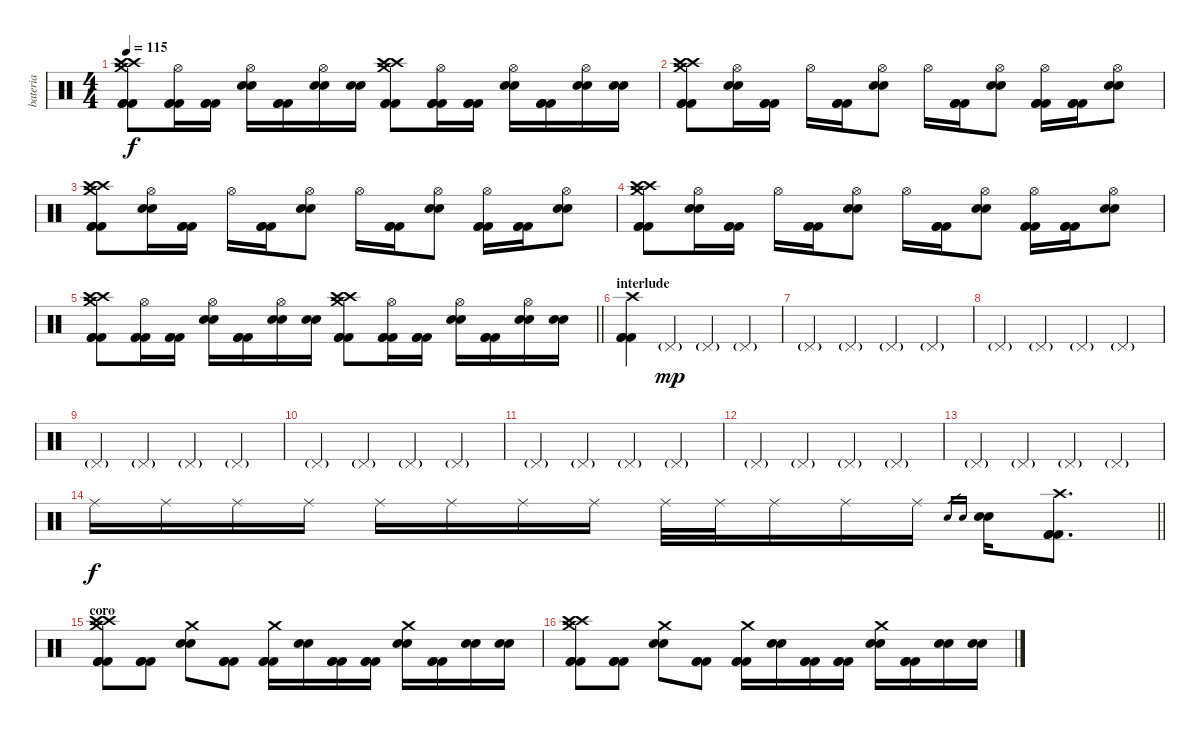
\track ("bateria" "bateria") {instrument percussion}
\staff {score}
\articulation defaults
\ts (4 4)
\tempo 115
\clef neutral
\ks c
("Crash high (hit)" "Crash medium (hit)" "Crash high (hit)" "Kick (hit) 2" "Kick (hit) 2" "Kick (hit) 2").8{dy f} ("Hi-Hat (open)" "Kick (hit) 2" "Kick (hit) 2" "Kick (hit) 2").16 ("Kick (hit) 2" "Kick (hit) 2" "Kick (hit) 2").16 ("Hi-Hat (open)" "Electric Snare (hit)" "Electric Snare (hit)").16 ("Kick (hit) 2" "Kick (hit) 2" "Kick (hit) 2").16 ("Hi-Hat (open)" "Electric Snare (hit)" "Electric Snare (hit)").16 ("Electric Snare (hit)" "Electric Snare (hit)").16 ("Crash high (hit)" "Crash medium (hit)" "Crash high (hit)" "Kick (hit) 2" "Kick (hit) 2" "Kick (hit) 2").8 ("Hi-Hat (open)" "Kick (hit) 2" "Kick (hit) 2" "Kick (hit) 2").16 ("Kick (hit) 2" "Kick (hit) 2" "Kick (hit) 2").16 ("Hi-Hat (open)" "Electric Snare (hit)" "Electric Snare (hit)").16 ("Kick (hit) 2" "Kick (hit) 2" "Kick (hit) 2").16 ("Hi-Hat (open)" "Electric Snare (hit)" "Electric Snare (hit)").16 ("Electric Snare (hit)" "Electric Snare (hit)").16 |
("Crash high (hit)" "Crash medium (hit)" "Crash high (hit)" "Kick (hit) 2" "Kick (hit) 2" "Kick (hit) 2").8 ("Hi-Hat (open)" "Electric Snare (hit)" "Electric Snare (hit)").16 ("Kick (hit) 2" "Kick (hit) 2" "Kick (hit) 2").16 "Hi-Hat (open)".16 ("Kick (hit) 2" "Kick (hit) 2" "Kick (hit) 2").16 ("Hi-Hat (open)" "Electric Snare (hit)" "Electric Snare (hit)").8 "Hi-Hat (open)".16 ("Kick (hit) 2" "Kick (hit) 2" "Kick (hit) 2").16 ("Hi-Hat (open)" "Electric Snare (hit)" "Electric Snare (hit)").8 ("Hi-Hat (open)" "Kick (hit) 2" "Kick (hit) 2" "Kick (hit) 2").16 ("Kick (hit) 2" "Kick (hit) 2" "Kick (hit) 2").16 ("Hi-Hat (open)" "Electric Snare (hit)" "Electric Snare (hit)").8 |
("Crash high (hit)" "Crash medium (hit)" "Crash high (hit)" "Kick (hit) 2" "Kick (hit) 2" "Kick (hit) 2").8 ("Hi-Hat (open)" "Electric Snare (hit)" "Electric Snare (hit)").16 ("Kick (hit) 2" "Kick (hit) 2" "Kick (hit) 2").16 "Hi-Hat (open)".16 ("Kick (hit) 2" "Kick (hit) 2" "Kick (hit) 2").16 ("Hi-Hat (open)" "Electric Snare (hit)" "Electric Snare (hit)").8 "Hi-Hat (open)".16 ("Kick (hit) 2" "Kick (hit) 2" "Kick (hit) 2").16 ("Hi-Hat (open)" "Electric Snare (hit)" "Electric Snare (hit)").8 ("Hi-Hat (open)" "Kick (hit) 2" "Kick (hit) 2" "Kick (hit) 2").16 ("Kick (hit) 2" "Kick (hit) 2" "Kick (hit) 2").16 ("Hi-Hat (open)" "Electric Snare (hit)" "Electric Snare (hit)").8 |
("Crash high (hit)" "Crash medium (hit)" "Crash high (hit)" "Kick (hit) 2" "Kick (hit) 2" "Kick (hit) 2").8 ("Hi-Hat (open)" "Electric Snare (hit)" "Electric Snare (hit)").16 ("Kick (hit) 2" "Kick (hit) 2" "Kick (hit) 2").16 "Hi-Hat (open)".16 ("Kick (hit) 2" "Kick (hit) 2" "Kick (hit) 2").16 ("Hi-Hat (open)" "Electric Snare (hit)" "Electric Snare (hit)").8 "Hi-Hat (open)".16 ("Kick (hit) 2" "Kick (hit) 2" "Kick (hit) 2").16 ("Hi-Hat (open)" "Electric Snare (hit)" "Electric Snare (hit)").8 ("Hi-Hat (open)" "Kick (hit) 2" "Kick (hit) 2" "Kick (hit) 2").16 ("Kick (hit) 2" "Kick (hit) 2" "Kick (hit) 2").16 ("Hi-Hat (open)" "Electric Snare (hit)" "Electric Snare (hit)").8 |
\barLineRight lightlight
("Crash high (hit)" "Crash medium (hit)" "Crash high (hit)" "Kick (hit) 2" "Kick (hit) 2" "Kick (hit) 2").8 ("Hi-Hat (open)" "Kick (hit) 2" "Kick (hit) 2" "Kick (hit) 2").16 ("Kick (hit) 2" "Kick (hit) 2" "Kick (hit) 2").16 ("Hi-Hat (open)" "Electric Snare (hit)" "Electric Snare (hit)").16 ("Kick (hit) 2" "Kick (hit) 2" "Kick (hit) 2").16 ("Hi-Hat (open)" "Electric Snare (hit)" "Electric Snare (hit)").16 ("Electric Snare (hit)" "Electric Snare (hit)").16 ("Crash high (hit)" "Crash medium (hit)" "Crash high (hit)" "Kick (hit) 2" "Kick (hit) 2" "Kick (hit) 2").8 ("Hi-Hat (open)" "Kick (hit) 2" "Kick (hit) 2" "Kick (hit) 2").16 ("Kick (hit) 2" "Kick (hit) 2" "Kick (hit) 2").16 ("Hi-Hat (open)" "Electric Snare (hit)" "Electric Snare (hit)").16 ("Kick (hit) 2" "Kick (hit) 2" "Kick (hit) 2").16 ("Hi-Hat (open)" "Electric Snare (hit)" "Electric Snare (hit)").16 ("Electric Snare (hit)" "Electric Snare (hit)").16 |
\section ("" "interlude")
("Crash high (hit)" "Kick (hit) 2" "Kick (hit) 2" "Kick (hit) 2").4 "Pedal Hi-Hat (hit)"{g}.4{dy mp} "Pedal Hi-Hat (hit)"{g}.4 "Pedal Hi-Hat (hit)"{g}.4 |
"Pedal Hi-Hat (hit)"{g}.4 "Pedal Hi-Hat (hit)"{g}.4 "Pedal Hi-Hat (hit)"{g}.4 "Pedal Hi-Hat (hit)"{g}.4 |
"Pedal Hi-Hat (hit)"{g}.4 "Pedal Hi-Hat (hit)"{g}.4 "Pedal Hi-Hat (hit)"{g}.4 "Pedal Hi-Hat (hit)"{g}.4 |
"Pedal Hi-Hat (hit)"{g}.4 "Pedal Hi-Hat (hit)"{g}.4 "Pedal Hi-Hat (hit)"{g}.4 "Pedal Hi-Hat (hit)"{g}.4 |
"Pedal Hi-Hat (hit)"{g}.4 "Pedal Hi-Hat (hit)"{g}.4 "Pedal Hi-Hat (hit)"{g}.4 "Pedal Hi-Hat (hit)"{g}.4 |
"Pedal Hi-Hat (hit)"{g}.4 "Pedal Hi-Hat (hit)"{g}.4 "Pedal Hi-Hat (hit)"{g}.4 "Pedal Hi-Hat (hit)"{g}.4 |
"Pedal Hi-Hat (hit)"{g}.4 "Pedal Hi-Hat (hit)"{g}.4 "Pedal Hi-Hat (hit)"{g}.4 "Pedal Hi-Hat (hit)"{g}.4 |
"Pedal Hi-Hat (hit)"{g}.4 "Pedal Hi-Hat (hit)"{g}.4 "Pedal Hi-Hat (hit)"{g}.4 "Pedal Hi-Hat (hit)"{g}.4 |
\barLineRight lightlight "Ride (middle)".16{dy f} "Ride (middle)".16 "Ride (middle)".16 "Ride (middle)".16 "Ride (middle)".16 "Ride (middle)".16 "Ride (middle)".16 "Ride (middle)".16 "Ride (middle)".32 "Ride (middle)".32 "Ride (middle)".16 "Ride (middle)".16 "Ride (middle)".16 "Electric Snare (hit)".16{gr} "Electric Snare (hit)".16{gr}
("Electric Snare (hit)" "Electric Snare (hit)").16 ("Crash high (hit)" "Kick (hit) 2" "Kick (hit) 2" "Kick (hit) 2").8{d} |
\section ("" "coro")
("Crash high (hit)" "Crash medium (hit)" "Crash high (hit)" "Kick (hit) 2" "Kick (hit) 2" "Kick (hit) 2").8 ("Kick (hit) 2" "Kick (hit) 2" "Kick (hit) 2").8 ("Crash medium (hit)" "Electric Snare (hit)" "Electric Snare (hit)").8 ("Kick (hit) 2" "Kick (hit) 2" "Kick (hit) 2").8 ("Crash medium (hit)" "Kick (hit) 2" "Kick (hit) 2" "Kick (hit) 2").16 ("Electric Snare (hit)" "Electric Snare (hit)").16 ("Kick (hit) 2" "Kick (hit) 2" "Kick (hit) 2").16 ("Kick (hit) 2" "Kick (hit) 2" "Kick (hit) 2").16 ("Crash medium (hit)" "Electric Snare (hit)" "Electric Snare (hit)").16 ("Kick (hit) 2" "Kick (hit) 2" "Kick (hit) 2").16 ("Electric Snare (hit)" "Electric Snare (hit)").16 ("Electric Snare (hit)" "Electric Snare (hit)").16 |
("Crash high (hit)" "Crash medium (hit)" "Crash high (hit)" "Kick (hit) 2" "Kick (hit) 2" "Kick (hit) 2").8 ("Kick (hit) 2" "Kick (hit) 2" "Kick (hit) 2").8 ("Crash medium (hit)" "Electric Snare (hit)" "Electric Snare (hit)").8 ("Kick (hit) 2" "Kick (hit) 2" "Kick (hit) 2").8 ("Crash medium (hit)" "Kick (hit) 2" "Kick (hit) 2" "Kick (hit) 2").16 ("Electric Snare (hit)" "Electric Snare (hit)").16 ("Kick (hit) 2" "Kick (hit) 2" "Kick (hit) 2").16 ("Kick (hit) 2" "Kick (hit) 2" "Kick (hit) 2").16 ("Crash medium (hit)" "Electric Snare (hit)" "Electric Snare (hit)").16 ("Kick (hit) 2" "Kick (hit) 2" "Kick (hit) 2").16 ("Electric Snare (hit)" "Electric Snare (hit)").16 ("Electric Snare (hit)" "Electric Snare (hit)").16
